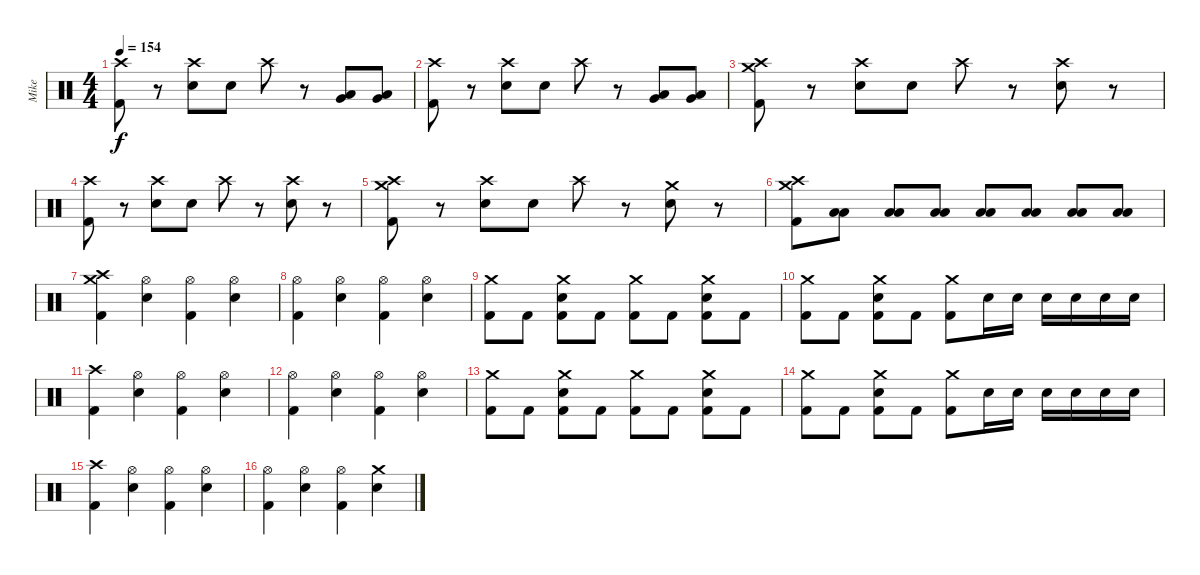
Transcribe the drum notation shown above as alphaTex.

\track ("Mike " "Mike ") {instrument percussion}
\staff {score}
\articulation defaults
\ts (4 4)
\tempo 154
\clef neutral
\ks c
("Crash high (hit)" "Kick (hit) 2").8{dy f} r.8 ("Crash high (hit)" "Electric Snare (hit)").8 "Electric Snare (hit)".8 "Crash high (hit)".8 r.8 ("Low Tom (hit)" "Very Low Tom (hit)").8 ("Low Tom (hit)" "Very Low Tom (hit)").8 |
("Crash high (hit)" "Kick (hit) 2").8 r.8 ("Crash high (hit)" "Electric Snare (hit)").8 "Electric Snare (hit)".8 "Crash high (hit)".8 r.8 ("Low Tom (hit)" "Very Low Tom (hit)").8 ("Low Tom (hit)" "Very Low Tom (hit)").8 |
("Crash medium (hit)" "Crash high (hit)" "Kick (hit) 2").8 r.8 ("Crash high (hit)" "Electric Snare (hit)").8 "Electric Snare (hit)".8 "Crash high (hit)".8 r.8 ("Crash high (hit)" "Electric Snare (hit)").8 r.8 |
("Crash high (hit)" "Kick (hit) 2").8 r.8 ("Crash high (hit)" "Electric Snare (hit)").8 "Electric Snare (hit)".8 "Crash high (hit)".8 r.8 ("Crash high (hit)" "Electric Snare (hit)").8 r.8 |
("Crash medium (hit)" "Crash high (hit)" "Kick (hit) 2").8 r.8 ("Crash high (hit)" "Electric Snare (hit)").8 "Electric Snare (hit)".8 "Crash high (hit)".8 r.8 ("Crash medium (hit)" "Electric Snare (hit)").8 r.8 |
("Crash high (hit)" "Crash medium (hit)" "Kick (hit) 2").8 ("Low Tom (hit)" "Low Floor Tom (hit)").8 ("Low Tom (hit)" "Low Floor Tom (hit)").8 ("Low Tom (hit)" "Low Floor Tom (hit)").8 ("Low Tom (hit)" "Low Floor Tom (hit)").8 ("Low Tom (hit)" "Low Floor Tom (hit)").8 ("Low Tom (hit)" "Low Floor Tom (hit)").8 ("Low Tom (hit)" "Low Floor Tom (hit)").8 |
("Crash high (hit)" "Crash medium (hit)" "Kick (hit) 2").4 ("Hi-Hat (open)" "Electric Snare (hit)").4 ("Hi-Hat (open)" "Kick (hit) 2").4 ("Hi-Hat (open)" "Electric Snare (hit)").4 |
("Hi-Hat (open)" "Kick (hit) 2").4 ("Hi-Hat (open)" "Electric Snare (hit)").4 ("Hi-Hat (open)" "Kick (hit) 2").4 ("Hi-Hat (open)" "Electric Snare (hit)").4 |
("Crash medium (hit)" "Kick (hit) 2").8 "Kick (hit) 2".8 ("Crash medium (hit)" "Electric Snare (hit)" "Kick (hit) 2").8 "Kick (hit) 2".8 ("Crash medium (hit)" "Kick (hit) 2").8 "Kick (hit) 2".8 ("Crash medium (hit)" "Electric Snare (hit)" "Kick (hit) 2").8 "Kick (hit) 2".8 |
("Crash medium (hit)" "Kick (hit) 2").8 "Kick (hit) 2".8 ("Crash medium (hit)" "Electric Snare (hit)" "Kick (hit) 2").8 "Kick (hit) 2".8 ("Crash medium (hit)" "Kick (hit) 2").8 "Electric Snare (hit)".16 "Electric Snare (hit)".16 "Electric Snare (hit)".16 "Electric Snare (hit)".16 "Electric Snare (hit)".16 "Electric Snare (hit)".16 |
("Crash high (hit)" "Kick (hit) 2").4 ("Hi-Hat (open)" "Electric Snare (hit)").4 ("Hi-Hat (open)" "Kick (hit) 2").4 ("Hi-Hat (open)" "Electric Snare (hit)").4 |
("Hi-Hat (open)" "Kick (hit) 2").4 ("Hi-Hat (open)" "Electric Snare (hit)").4 ("Hi-Hat (open)" "Kick (hit) 2").4 ("Hi-Hat (open)" "Electric Snare (hit)").4 |
("Crash medium (hit)" "Kick (hit) 2").8 "Kick (hit) 2".8 ("Crash medium (hit)" "Electric Snare (hit)" "Kick (hit) 2").8 "Kick (hit) 2".8 ("Crash medium (hit)" "Kick (hit) 2").8 "Kick (hit) 2".8 ("Crash medium (hit)" "Electric Snare (hit)" "Kick (hit) 2").8 "Kick (hit) 2".8 |
("Crash medium (hit)" "Kick (hit) 2").8 "Kick (hit) 2".8 ("Crash medium (hit)" "Electric Snare (hit)" "Kick (hit) 2").8 "Kick (hit) 2".8 ("Crash medium (hit)" "Kick (hit) 2").8 "Electric Snare (hit)".16 "Electric Snare (hit)".16 "Electric Snare (hit)".16 "Electric Snare (hit)".16 "Electric Snare (hit)".16 "Electric Snare (hit)".16 |
("Crash high (hit)" "Kick (hit) 2").4 ("Hi-Hat (open)" "Electric Snare (hit)").4 ("Hi-Hat (open)" "Kick (hit) 2").4 ("Hi-Hat (open)" "Electric Snare (hit)").4 |
("Hi-Hat (open)" "Kick (hit) 2").4 ("Hi-Hat (open)" "Electric Snare (hit)").4 ("Hi-Hat (open)" "Kick (hit) 2").4 ("Crash medium (hit)" "Electric Snare (hit)").4
